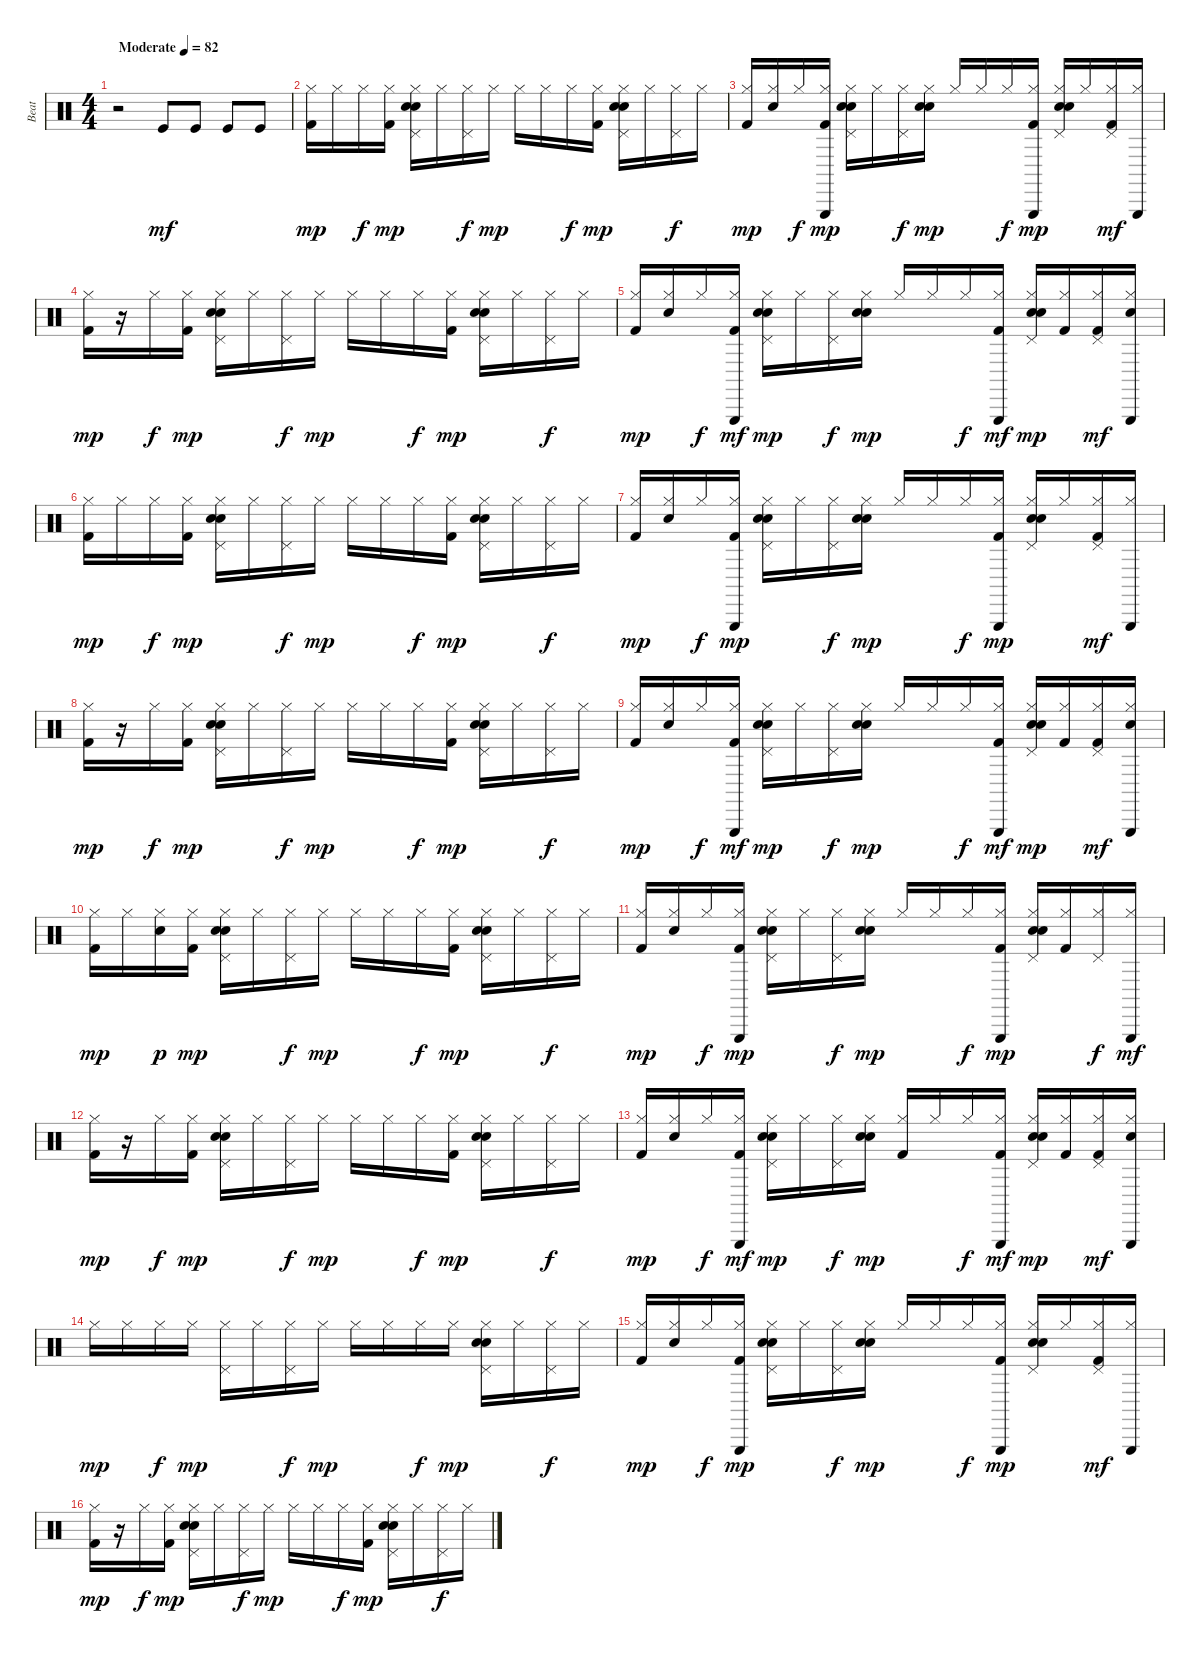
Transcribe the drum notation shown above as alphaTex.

\track ("Beat" "Beat") {instrument percussion}
\staff {score}
\articulation defaults
\ts (4 4)
\tempo (82 "Moderate")
\clef neutral
\ks c
r.2{dy mf} "Kick (hit)".8 "Kick (hit)".8 "Kick (hit)".8 "Kick (hit)".8 |
("Kick (hit) 2" "Hi-Hat (closed)").16{dy mp} "Hi-Hat (closed)".16 "Hi-Hat (closed)".16{dy f} ("Kick (hit) 2" "Hi-Hat (closed)").16{dy mp} ("Pedal Hi-Hat (hit)" "Hi-Hat (closed)" "Hand Clap (hit)" "Electric Snare (hit)").16 "Hi-Hat (closed)".16 ("Pedal Hi-Hat (hit)" "Hi-Hat (closed)").16{dy f} "Hi-Hat (closed)".16{dy mp} "Hi-Hat (closed)".16 "Hi-Hat (closed)".16 "Hi-Hat (closed)".16{dy f} ("Kick (hit) 2" "Hi-Hat (closed)").16{dy mp} ("Pedal Hi-Hat (hit)" "Hi-Hat (closed)" "Hand Clap (hit)" "Electric Snare (hit)").16 "Hi-Hat (closed)".16 ("Pedal Hi-Hat (hit)" "Hi-Hat (closed)").16{dy f} "Hi-Hat (closed)".16 |
("Kick (hit) 2" "Hi-Hat (closed)").16{dy mp} ("Hand Clap (hit)" "Hi-Hat (closed)").16 "Hi-Hat (closed)".16{dy f} ("Kick (hit) 2" "Triangle (hit)" "Hi-Hat (closed)").16{dy mp} ("Pedal Hi-Hat (hit)" "Hi-Hat (closed)" "Hand Clap (hit)" "Electric Snare (hit)").16 "Hi-Hat (closed)".16 ("Pedal Hi-Hat (hit)" "Hi-Hat (closed)").16{dy f} ("Electric Snare (hit)" "Hi-Hat (closed)" "Hand Clap (hit)").16{dy mp} "Hi-Hat (closed)".16 "Hi-Hat (closed)".16 "Hi-Hat (closed)".16{dy f} ("Kick (hit) 2" "Triangle (hit)" "Hi-Hat (closed)").16{dy mp} ("Pedal Hi-Hat (hit)" "Hi-Hat (closed)" "Hand Clap (hit)" "Electric Snare (hit)").16 "Hi-Hat (closed)".16 ("Kick (hit) 2" "Pedal Hi-Hat (hit)" "Hi-Hat (closed)").16{dy mf} ("Triangle (hit)" "Hi-Hat (closed)").16 |
("Kick (hit) 2" "Hi-Hat (closed)").16{dy mp} r.16 "Hi-Hat (closed)".16{dy f} ("Kick (hit) 2" "Hi-Hat (closed)").16{dy mp} ("Pedal Hi-Hat (hit)" "Hi-Hat (closed)" "Hand Clap (hit)" "Electric Snare (hit)").16 "Hi-Hat (closed)".16 ("Pedal Hi-Hat (hit)" "Hi-Hat (closed)").16{dy f} "Hi-Hat (closed)".16{dy mp} "Hi-Hat (closed)".16 "Hi-Hat (closed)".16 "Hi-Hat (closed)".16{dy f} ("Kick (hit) 2" "Hi-Hat (closed)").16{dy mp} ("Pedal Hi-Hat (hit)" "Hi-Hat (closed)" "Hand Clap (hit)" "Electric Snare (hit)").16 "Hi-Hat (closed)".16 ("Pedal Hi-Hat (hit)" "Hi-Hat (closed)").16{dy f} "Hi-Hat (closed)".16 |
("Kick (hit) 2" "Hi-Hat (closed)").16{dy mp} ("Hand Clap (hit)" "Hi-Hat (closed)").16 "Hi-Hat (closed)".16{dy f} ("Kick (hit) 2" "Hi-Hat (closed)" "Triangle (hit)").16{dy mf} ("Pedal Hi-Hat (hit)" "Hi-Hat (closed)" "Hand Clap (hit)" "Electric Snare (hit)").16{dy mp} "Hi-Hat (closed)".16 ("Pedal Hi-Hat (hit)" "Hi-Hat (closed)").16{dy f} ("Electric Snare (hit)" "Hi-Hat (closed)" "Hand Clap (hit)").16{dy mp} "Hi-Hat (closed)".16 "Hi-Hat (closed)".16 "Hi-Hat (closed)".16{dy f} ("Kick (hit) 2" "Hi-Hat (closed)" "Triangle (hit)").16{dy mf} ("Pedal Hi-Hat (hit)" "Hi-Hat (closed)" "Hand Clap (hit)" "Electric Snare (hit)").16{dy mp} ("Kick (hit) 2" "Hi-Hat (closed)").16 ("Kick (hit) 2" "Pedal Hi-Hat (hit)" "Hi-Hat (closed)").16{dy mf} ("Hand Clap (hit)" "Hi-Hat (closed)" "Triangle (hit)").16 |
("Kick (hit) 2" "Hi-Hat (closed)").16{dy mp} "Hi-Hat (closed)".16 "Hi-Hat (closed)".16{dy f} ("Kick (hit) 2" "Hi-Hat (closed)").16{dy mp} ("Pedal Hi-Hat (hit)" "Hi-Hat (closed)" "Hand Clap (hit)" "Electric Snare (hit)").16 "Hi-Hat (closed)".16 ("Pedal Hi-Hat (hit)" "Hi-Hat (closed)").16{dy f} "Hi-Hat (closed)".16{dy mp} "Hi-Hat (closed)".16 "Hi-Hat (closed)".16 "Hi-Hat (closed)".16{dy f} ("Kick (hit) 2" "Hi-Hat (closed)").16{dy mp} ("Pedal Hi-Hat (hit)" "Hi-Hat (closed)" "Hand Clap (hit)" "Electric Snare (hit)").16 "Hi-Hat (closed)".16 ("Pedal Hi-Hat (hit)" "Hi-Hat (closed)").16{dy f} "Hi-Hat (closed)".16 |
("Kick (hit) 2" "Hi-Hat (closed)").16{dy mp} ("Hand Clap (hit)" "Hi-Hat (closed)").16 "Hi-Hat (closed)".16{dy f} ("Kick (hit) 2" "Triangle (hit)" "Hi-Hat (closed)").16{dy mp} ("Pedal Hi-Hat (hit)" "Hi-Hat (closed)" "Hand Clap (hit)" "Electric Snare (hit)").16 "Hi-Hat (closed)".16 ("Pedal Hi-Hat (hit)" "Hi-Hat (closed)").16{dy f} ("Electric Snare (hit)" "Hi-Hat (closed)" "Hand Clap (hit)").16{dy mp} "Hi-Hat (closed)".16 "Hi-Hat (closed)".16 "Hi-Hat (closed)".16{dy f} ("Kick (hit) 2" "Triangle (hit)" "Hi-Hat (closed)").16{dy mp} ("Pedal Hi-Hat (hit)" "Hi-Hat (closed)" "Hand Clap (hit)" "Electric Snare (hit)").16 "Hi-Hat (closed)".16 ("Kick (hit) 2" "Pedal Hi-Hat (hit)" "Hi-Hat (closed)").16{dy mf} ("Triangle (hit)" "Hi-Hat (closed)").16 |
("Kick (hit) 2" "Hi-Hat (closed)").16{dy mp} r.16 "Hi-Hat (closed)".16{dy f} ("Kick (hit) 2" "Hi-Hat (closed)").16{dy mp} ("Pedal Hi-Hat (hit)" "Hi-Hat (closed)" "Hand Clap (hit)" "Electric Snare (hit)").16 "Hi-Hat (closed)".16 ("Pedal Hi-Hat (hit)" "Hi-Hat (closed)").16{dy f} "Hi-Hat (closed)".16{dy mp} "Hi-Hat (closed)".16 "Hi-Hat (closed)".16 "Hi-Hat (closed)".16{dy f} ("Kick (hit) 2" "Hi-Hat (closed)").16{dy mp} ("Pedal Hi-Hat (hit)" "Hi-Hat (closed)" "Hand Clap (hit)" "Electric Snare (hit)").16 "Hi-Hat (closed)".16 ("Pedal Hi-Hat (hit)" "Hi-Hat (closed)").16{dy f} "Hi-Hat (closed)".16 |
("Kick (hit) 2" "Hi-Hat (closed)").16{dy mp} ("Hand Clap (hit)" "Hi-Hat (closed)").16 "Hi-Hat (closed)".16{dy f} ("Kick (hit) 2" "Hi-Hat (closed)" "Triangle (hit)").16{dy mf} ("Pedal Hi-Hat (hit)" "Hi-Hat (closed)" "Hand Clap (hit)" "Electric Snare (hit)").16{dy mp} "Hi-Hat (closed)".16 ("Pedal Hi-Hat (hit)" "Hi-Hat (closed)").16{dy f} ("Electric Snare (hit)" "Hi-Hat (closed)" "Hand Clap (hit)").16{dy mp} "Hi-Hat (closed)".16 "Hi-Hat (closed)".16 "Hi-Hat (closed)".16{dy f} ("Kick (hit) 2" "Hi-Hat (closed)" "Triangle (hit)").16{dy mf} ("Pedal Hi-Hat (hit)" "Hi-Hat (closed)" "Hand Clap (hit)" "Electric Snare (hit)").16{dy mp} ("Kick (hit) 2" "Hi-Hat (closed)").16 ("Kick (hit) 2" "Pedal Hi-Hat (hit)" "Hi-Hat (closed)").16{dy mf} ("Hand Clap (hit)" "Hi-Hat (closed)" "Triangle (hit)").16 |
("Kick (hit) 2" "Hi-Hat (closed)").16{dy mp} "Hi-Hat (closed)".16 ("Hand Clap (hit)" "Hi-Hat (closed)").16{dy p} ("Kick (hit) 2" "Hi-Hat (closed)").16{dy mp} ("Pedal Hi-Hat (hit)" "Hi-Hat (closed)" "Hand Clap (hit)" "Electric Snare (hit)").16 "Hi-Hat (closed)".16 ("Pedal Hi-Hat (hit)" "Hi-Hat (closed)").16{dy f} "Hi-Hat (closed)".16{dy mp} "Hi-Hat (closed)".16 "Hi-Hat (closed)".16 "Hi-Hat (closed)".16{dy f} ("Kick (hit) 2" "Hi-Hat (closed)").16{dy mp} ("Pedal Hi-Hat (hit)" "Hi-Hat (closed)" "Hand Clap (hit)" "Electric Snare (hit)").16 "Hi-Hat (closed)".16 ("Pedal Hi-Hat (hit)" "Hi-Hat (closed)").16{dy f} "Hi-Hat (closed)".16 |
("Kick (hit) 2" "Hi-Hat (closed)").16{dy mp} ("Hand Clap (hit)" "Hi-Hat (closed)").16 "Hi-Hat (closed)".16{dy f} ("Kick (hit) 2" "Triangle (hit)" "Hi-Hat (closed)").16{dy mp} ("Pedal Hi-Hat (hit)" "Hi-Hat (closed)" "Hand Clap (hit)" "Electric Snare (hit)").16 "Hi-Hat (closed)".16 ("Pedal Hi-Hat (hit)" "Hi-Hat (closed)").16{dy f} ("Electric Snare (hit)" "Hi-Hat (closed)" "Hand Clap (hit)").16{dy mp} "Hi-Hat (closed)".16 "Hi-Hat (closed)".16 "Hi-Hat (closed)".16{dy f} ("Kick (hit) 2" "Triangle (hit)" "Hi-Hat (closed)").16{dy mp} ("Pedal Hi-Hat (hit)" "Hi-Hat (closed)" "Hand Clap (hit)" "Electric Snare (hit)").16 ("Kick (hit) 2" "Hi-Hat (closed)").16 ("Pedal Hi-Hat (hit)" "Hi-Hat (closed)").16{dy f} ("Triangle (hit)" "Hi-Hat (closed)").16{dy mf} |
("Kick (hit) 2" "Hi-Hat (closed)").16{dy mp} r.16 "Hi-Hat (closed)".16{dy f} ("Kick (hit) 2" "Hi-Hat (closed)").16{dy mp} ("Pedal Hi-Hat (hit)" "Hi-Hat (closed)" "Hand Clap (hit)" "Electric Snare (hit)").16 "Hi-Hat (closed)".16 ("Pedal Hi-Hat (hit)" "Hi-Hat (closed)").16{dy f} "Hi-Hat (closed)".16{dy mp} "Hi-Hat (closed)".16 "Hi-Hat (closed)".16 "Hi-Hat (closed)".16{dy f} ("Kick (hit) 2" "Hi-Hat (closed)").16{dy mp} ("Pedal Hi-Hat (hit)" "Hi-Hat (closed)" "Hand Clap (hit)" "Electric Snare (hit)").16 "Hi-Hat (closed)".16 ("Pedal Hi-Hat (hit)" "Hi-Hat (closed)").16{dy f} "Hi-Hat (closed)".16 |
("Kick (hit) 2" "Hi-Hat (closed)").16{dy mp} ("Hand Clap (hit)" "Hi-Hat (closed)").16 "Hi-Hat (closed)".16{dy f} ("Kick (hit) 2" "Hi-Hat (closed)" "Triangle (hit)").16{dy mf} ("Pedal Hi-Hat (hit)" "Hi-Hat (closed)" "Hand Clap (hit)" "Electric Snare (hit)").16{dy mp} "Hi-Hat (closed)".16 ("Pedal Hi-Hat (hit)" "Hi-Hat (closed)").16{dy f} ("Electric Snare (hit)" "Hi-Hat (closed)" "Hand Clap (hit)").16{dy mp} ("Kick (hit) 2" "Hi-Hat (closed)").16 "Hi-Hat (closed)".16 "Hi-Hat (closed)".16{dy f} ("Kick (hit) 2" "Hi-Hat (closed)" "Triangle (hit)").16{dy mf} ("Pedal Hi-Hat (hit)" "Hi-Hat (closed)" "Hand Clap (hit)" "Electric Snare (hit)").16{dy mp} ("Kick (hit) 2" "Hi-Hat (closed)").16 ("Kick (hit) 2" "Pedal Hi-Hat (hit)" "Hi-Hat (closed)").16{dy mf} ("Hand Clap (hit)" "Hi-Hat (closed)" "Triangle (hit)").16 |
"Hi-Hat (closed)".16{dy mp} "Hi-Hat (closed)".16 "Hi-Hat (closed)".16{dy f} "Hi-Hat (closed)".16{dy mp} ("Pedal Hi-Hat (hit)" "Hi-Hat (closed)").16 "Hi-Hat (closed)".16 ("Pedal Hi-Hat (hit)" "Hi-Hat (closed)").16{dy f} "Hi-Hat (closed)".16{dy mp} "Hi-Hat (closed)".16 "Hi-Hat (closed)".16 "Hi-Hat (closed)".16{dy f} "Hi-Hat (closed)".16{dy mp} ("Pedal Hi-Hat (hit)" "Hi-Hat (closed)" "Hand Clap (hit)" "Electric Snare (hit)").16 "Hi-Hat (closed)".16 ("Pedal Hi-Hat (hit)" "Hi-Hat (closed)").16{dy f} "Hi-Hat (closed)".16 |
("Kick (hit) 2" "Hi-Hat (closed)").16{dy mp} ("Hand Clap (hit)" "Hi-Hat (closed)").16 "Hi-Hat (closed)".16{dy f} ("Kick (hit) 2" "Triangle (hit)" "Hi-Hat (closed)").16{dy mp} ("Pedal Hi-Hat (hit)" "Hi-Hat (closed)" "Hand Clap (hit)" "Electric Snare (hit)").16 "Hi-Hat (closed)".16 ("Pedal Hi-Hat (hit)" "Hi-Hat (closed)").16{dy f} ("Electric Snare (hit)" "Hi-Hat (closed)" "Hand Clap (hit)").16{dy mp} "Hi-Hat (closed)".16 "Hi-Hat (closed)".16 "Hi-Hat (closed)".16{dy f} ("Kick (hit) 2" "Triangle (hit)" "Hi-Hat (closed)").16{dy mp} ("Pedal Hi-Hat (hit)" "Hi-Hat (closed)" "Hand Clap (hit)" "Electric Snare (hit)").16 "Hi-Hat (closed)".16 ("Kick (hit) 2" "Pedal Hi-Hat (hit)" "Hi-Hat (closed)").16{dy mf} ("Triangle (hit)" "Hi-Hat (closed)").16 |
("Kick (hit) 2" "Hi-Hat (closed)").16{dy mp} r.16 "Hi-Hat (closed)".16{dy f} ("Kick (hit) 2" "Hi-Hat (closed)").16{dy mp} ("Pedal Hi-Hat (hit)" "Hi-Hat (closed)" "Hand Clap (hit)" "Electric Snare (hit)").16 "Hi-Hat (closed)".16 ("Pedal Hi-Hat (hit)" "Hi-Hat (closed)").16{dy f} "Hi-Hat (closed)".16{dy mp} "Hi-Hat (closed)".16 "Hi-Hat (closed)".16 "Hi-Hat (closed)".16{dy f} ("Kick (hit) 2" "Hi-Hat (closed)").16{dy mp} ("Pedal Hi-Hat (hit)" "Hi-Hat (closed)" "Hand Clap (hit)" "Electric Snare (hit)").16 "Hi-Hat (closed)".16 ("Pedal Hi-Hat (hit)" "Hi-Hat (closed)").16{dy f} "Hi-Hat (closed)".16
